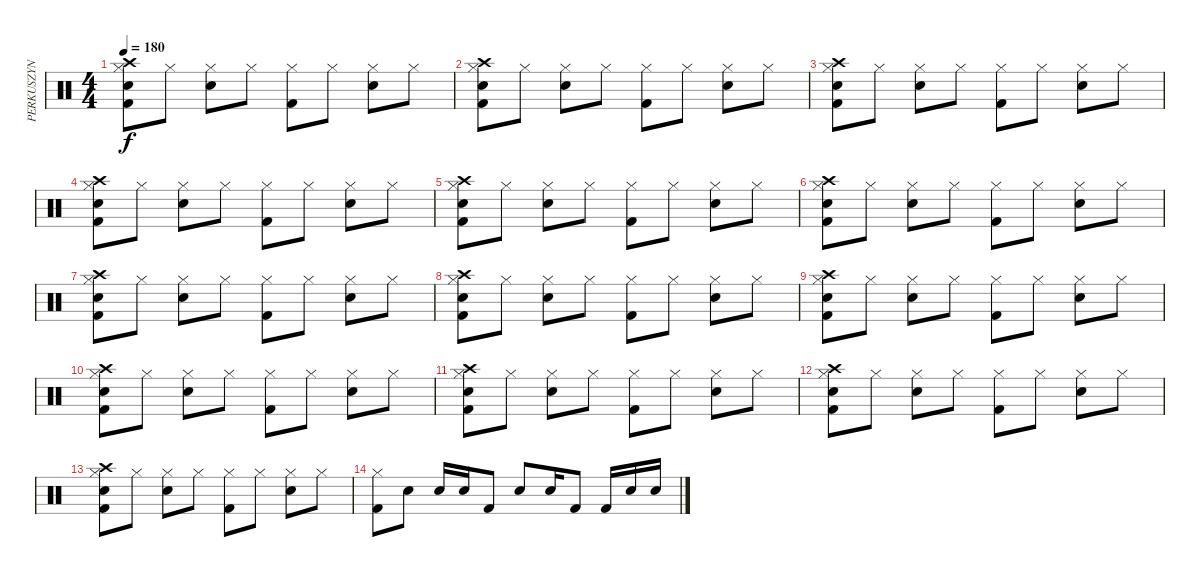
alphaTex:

\track ("PERKUSZYN" "PERKUSZYN") {instrument percussion}
\staff {score}
\articulation defaults
\ts (4 4)
\tempo 180
\clef neutral
\ks c
("Kick (hit) 2" "Snare (hit) 2" "Hi-Hat (closed)" "Crash high (hit)").8{dy f} "Hi-Hat (closed)".8 ("Snare (hit) 2" "Hi-Hat (closed)").8 "Hi-Hat (closed)".8 ("Kick (hit) 2" "Hi-Hat (closed)").8 "Hi-Hat (closed)".8 ("Snare (hit) 2" "Hi-Hat (closed)").8 "Hi-Hat (closed)".8 |
("Kick (hit) 2" "Snare (hit) 2" "Hi-Hat (closed)" "Crash high (hit)").8 "Hi-Hat (closed)".8 ("Snare (hit) 2" "Hi-Hat (closed)").8 "Hi-Hat (closed)".8 ("Kick (hit) 2" "Hi-Hat (closed)").8 "Hi-Hat (closed)".8 ("Snare (hit) 2" "Hi-Hat (closed)").8 "Hi-Hat (closed)".8 |
("Kick (hit) 2" "Snare (hit) 2" "Hi-Hat (closed)" "Crash high (hit)").8 "Hi-Hat (closed)".8 ("Snare (hit) 2" "Hi-Hat (closed)").8 "Hi-Hat (closed)".8 ("Kick (hit) 2" "Hi-Hat (closed)").8 "Hi-Hat (closed)".8 ("Snare (hit) 2" "Hi-Hat (closed)").8 "Hi-Hat (closed)".8 |
("Kick (hit) 2" "Snare (hit) 2" "Hi-Hat (closed)" "Crash high (hit)").8 "Hi-Hat (closed)".8 ("Snare (hit) 2" "Hi-Hat (closed)").8 "Hi-Hat (closed)".8 ("Kick (hit) 2" "Hi-Hat (closed)").8 "Hi-Hat (closed)".8 ("Snare (hit) 2" "Hi-Hat (closed)").8 "Hi-Hat (closed)".8 |
("Kick (hit) 2" "Snare (hit) 2" "Hi-Hat (closed)" "Crash high (hit)").8 "Hi-Hat (closed)".8 ("Snare (hit) 2" "Hi-Hat (closed)").8 "Hi-Hat (closed)".8 ("Kick (hit) 2" "Hi-Hat (closed)").8 "Hi-Hat (closed)".8 ("Snare (hit) 2" "Hi-Hat (closed)").8 "Hi-Hat (closed)".8 |
("Kick (hit) 2" "Snare (hit) 2" "Hi-Hat (closed)" "Crash high (hit)").8 "Hi-Hat (closed)".8 ("Snare (hit) 2" "Hi-Hat (closed)").8 "Hi-Hat (closed)".8 ("Kick (hit) 2" "Hi-Hat (closed)").8 "Hi-Hat (closed)".8 ("Snare (hit) 2" "Hi-Hat (closed)").8 "Hi-Hat (closed)".8 |
("Kick (hit) 2" "Snare (hit) 2" "Hi-Hat (closed)" "Crash high (hit)").8 "Hi-Hat (closed)".8 ("Snare (hit) 2" "Hi-Hat (closed)").8 "Hi-Hat (closed)".8 ("Kick (hit) 2" "Hi-Hat (closed)").8 "Hi-Hat (closed)".8 ("Snare (hit) 2" "Hi-Hat (closed)").8 "Hi-Hat (closed)".8 |
("Kick (hit) 2" "Snare (hit) 2" "Hi-Hat (closed)" "Crash high (hit)").8 "Hi-Hat (closed)".8 ("Snare (hit) 2" "Hi-Hat (closed)").8 "Hi-Hat (closed)".8 ("Kick (hit) 2" "Hi-Hat (closed)").8 "Hi-Hat (closed)".8 ("Snare (hit) 2" "Hi-Hat (closed)").8 "Hi-Hat (closed)".8 |
("Kick (hit) 2" "Snare (hit) 2" "Hi-Hat (closed)" "Crash high (hit)").8 "Hi-Hat (closed)".8 ("Snare (hit) 2" "Hi-Hat (closed)").8 "Hi-Hat (closed)".8 ("Kick (hit) 2" "Hi-Hat (closed)").8 "Hi-Hat (closed)".8 ("Snare (hit) 2" "Hi-Hat (closed)").8 "Hi-Hat (closed)".8 |
("Kick (hit) 2" "Snare (hit) 2" "Hi-Hat (closed)" "Crash high (hit)").8 "Hi-Hat (closed)".8 ("Snare (hit) 2" "Hi-Hat (closed)").8 "Hi-Hat (closed)".8 ("Kick (hit) 2" "Hi-Hat (closed)").8 "Hi-Hat (closed)".8 ("Snare (hit) 2" "Hi-Hat (closed)").8 "Hi-Hat (closed)".8 |
("Kick (hit) 2" "Snare (hit) 2" "Hi-Hat (closed)" "Crash high (hit)").8 "Hi-Hat (closed)".8 ("Snare (hit) 2" "Hi-Hat (closed)").8 "Hi-Hat (closed)".8 ("Kick (hit) 2" "Hi-Hat (closed)").8 "Hi-Hat (closed)".8 ("Snare (hit) 2" "Hi-Hat (closed)").8 "Hi-Hat (closed)".8 |
("Kick (hit) 2" "Snare (hit) 2" "Hi-Hat (closed)" "Crash high (hit)").8 "Hi-Hat (closed)".8 ("Snare (hit) 2" "Hi-Hat (closed)").8 "Hi-Hat (closed)".8 ("Kick (hit) 2" "Hi-Hat (closed)").8 "Hi-Hat (closed)".8 ("Snare (hit) 2" "Hi-Hat (closed)").8 "Hi-Hat (closed)".8 |
("Kick (hit) 2" "Snare (hit) 2" "Hi-Hat (closed)" "Crash high (hit)").8 "Hi-Hat (closed)".8 ("Snare (hit) 2" "Hi-Hat (closed)").8 "Hi-Hat (closed)".8 ("Kick (hit) 2" "Hi-Hat (closed)").8 "Hi-Hat (closed)".8 ("Snare (hit) 2" "Hi-Hat (closed)").8 "Hi-Hat (closed)".8 |
("Kick (hit) 2" "Hi-Hat (closed)").8 "Snare (hit) 2".8 "Snare (hit) 2".16 "Snare (hit) 2".16 "Kick (hit) 2".8 "Snare (hit) 2".8 "Snare (hit) 2".16 "Kick (hit) 2".8 "Kick (hit) 2".16 "Snare (hit) 2".16 "Snare (hit) 2".16
